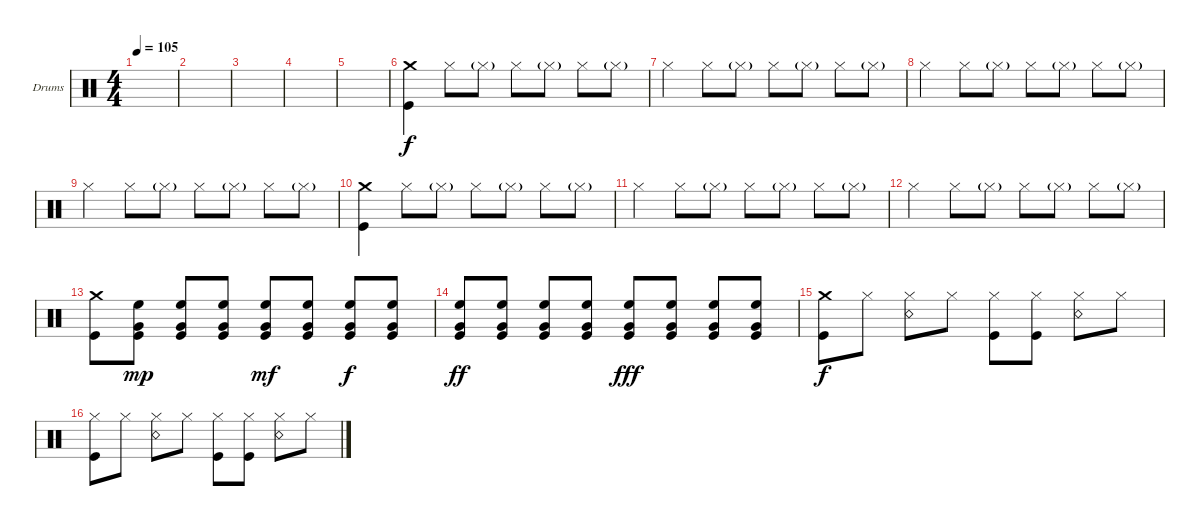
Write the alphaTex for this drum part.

\defaultSystemsLayout 4
\bracketExtendMode groupsimilarinstruments
\firstSystemTrackNameOrientation horizontal
\otherSystemsTrackNameOrientation horizontal
\track ("Drumkit" "Drums") {instrument percussion}
\staff {score}
\articulation defaults
\ts (4 4)
\tempo 105
\clef neutral
\ks c
|
|
|
|
|
("Kick (hit)" "Crash medium (hit)").4 "Hi-Hat (closed)".8 "Hi-Hat (closed)"{g}.8 "Hi-Hat (closed)".8 "Hi-Hat (closed)"{g}.8 "Hi-Hat (closed)".8 "Hi-Hat (closed)"{g}.8 |
"Hi-Hat (closed)".4 "Hi-Hat (closed)".8 "Hi-Hat (closed)"{g}.8 "Hi-Hat (closed)".8 "Hi-Hat (closed)"{g}.8 "Hi-Hat (closed)".8 "Hi-Hat (closed)"{g}.8 |
"Hi-Hat (closed)".4 "Hi-Hat (closed)".8 "Hi-Hat (closed)"{g}.8 "Hi-Hat (closed)".8 "Hi-Hat (closed)"{g}.8 "Hi-Hat (closed)".8 "Hi-Hat (closed)"{g}.8 |
"Hi-Hat (closed)".4 "Hi-Hat (closed)".8 "Hi-Hat (closed)"{g}.8 "Hi-Hat (closed)".8 "Hi-Hat (closed)"{g}.8 "Hi-Hat (closed)".8 "Hi-Hat (closed)"{g}.8 |
("Kick (hit)" "Crash medium (hit)").4 "Hi-Hat (closed)".8 "Hi-Hat (closed)"{g}.8 "Hi-Hat (closed)".8 "Hi-Hat (closed)"{g}.8 "Hi-Hat (closed)".8 "Hi-Hat (closed)"{g}.8 |
"Hi-Hat (closed)".4 "Hi-Hat (closed)".8 "Hi-Hat (closed)"{g}.8 "Hi-Hat (closed)".8 "Hi-Hat (closed)"{g}.8 "Hi-Hat (closed)".8 "Hi-Hat (closed)"{g}.8 |
"Hi-Hat (closed)".4 "Hi-Hat (closed)".8 "Hi-Hat (closed)"{g}.8 "Hi-Hat (closed)".8 "Hi-Hat (closed)"{g}.8 "Hi-Hat (closed)".8 "Hi-Hat (closed)"{g}.8 |
("Kick (hit)" "Crash medium (hit)").8 ("High Floor Tom (hit)" "Very Low Tom (hit)" "Kick (hit)").8{dy mp} ("Very Low Tom (hit)" "High Floor Tom (hit)" "Kick (hit)").8 ("High Floor Tom (hit)" "Very Low Tom (hit)" "Kick (hit)").8 ("Very Low Tom (hit)" "High Floor Tom (hit)" "Kick (hit)").8{dy mf} ("Very Low Tom (hit)" "High Floor Tom (hit)" "Kick (hit)").8 ("Very Low Tom (hit)" "High Floor Tom (hit)" "Kick (hit)").8{dy f} ("Very Low Tom (hit)" "High Floor Tom (hit)" "Kick (hit)").8 |
("Very Low Tom (hit)" "High Floor Tom (hit)" "Kick (hit)").8{dy ff} ("Very Low Tom (hit)" "High Floor Tom (hit)" "Kick (hit)").8 ("Very Low Tom (hit)" "High Floor Tom (hit)" "Kick (hit)").8 ("Very Low Tom (hit)" "High Floor Tom (hit)" "Kick (hit)").8 ("Very Low Tom (hit)" "High Floor Tom (hit)" "Kick (hit)").8{dy fff} ("Very Low Tom (hit)" "High Floor Tom (hit)" "Kick (hit)").8 ("Very Low Tom (hit)" "High Floor Tom (hit)" "Kick (hit)").8 ("Very Low Tom (hit)" "High Floor Tom (hit)" "Kick (hit)").8 |
("Kick (hit)" "Crash medium (hit)").8{dy f} "Hi-Hat (closed)".8 ("Hi-Hat (closed)" "Snare (rim shot)").8 "Hi-Hat (closed)".8 ("Hi-Hat (closed)" "Kick (hit)").8 ("Hi-Hat (closed)" "Kick (hit)").8 ("Hi-Hat (closed)" "Snare (rim shot)").8 "Hi-Hat (closed)".8 |
("Hi-Hat (closed)" "Kick (hit)").8 "Hi-Hat (closed)".8 ("Hi-Hat (closed)" "Snare (rim shot)").8 "Hi-Hat (closed)".8 ("Hi-Hat (closed)" "Kick (hit)").8 ("Hi-Hat (closed)" "Kick (hit)").8 ("Hi-Hat (closed)" "Snare (rim shot)").8 "Hi-Hat (closed)".8
